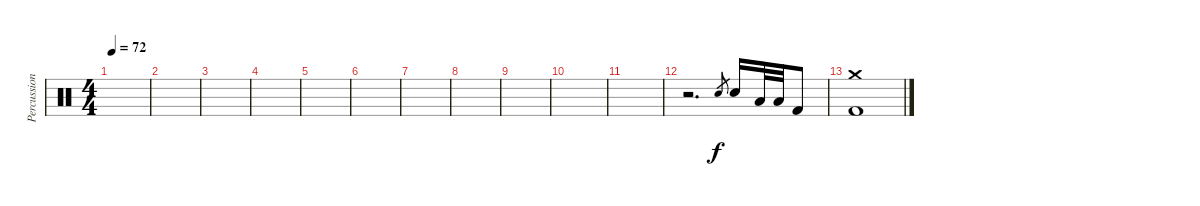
\track ("Percussion" "Percussion") {instrument percussion}
\staff {score}
\articulation defaults
\ts (4 4)
\tempo 72
\clef neutral
\ks c
|
|
|
|
|
|
|
|
|
|
|
r.2{d volume 13} "Snare (hit) 2".8{gr} "Snare (hit) 2".16 "Low Tom (hit)".32 "Low Tom (hit)".32 "Kick (hit) 2".8 |
("Crash medium (hit)" "Kick (hit) 2").1
